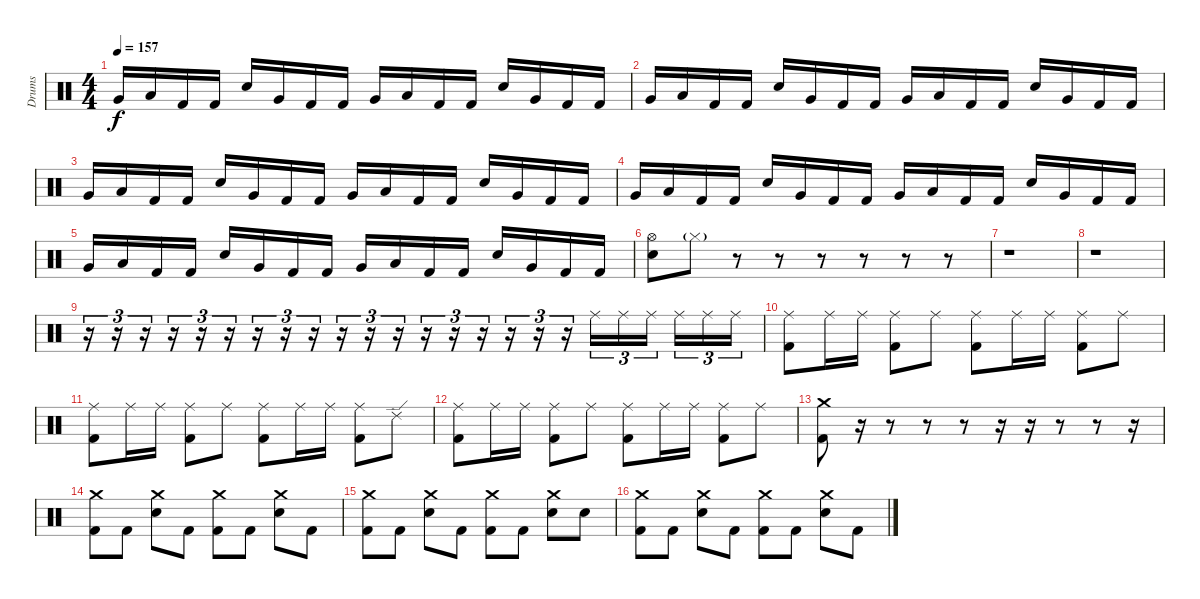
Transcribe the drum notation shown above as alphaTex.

\track ("Drums" "Drums") {instrument percussion}
\staff {score}
\articulation defaults
\ts (4 4)
\tempo 157
\clef neutral
\ks c "Very Low Tom (hit)".16{dy f} "Low Floor Tom (hit)".16 "Kick (hit) 2".16 "Kick (hit) 2".16 "Electric Snare (hit)".16 "Very Low Tom (hit)".16 "Kick (hit) 2".16 "Kick (hit) 2".16 "Very Low Tom (hit)".16 "Low Floor Tom (hit)".16 "Kick (hit) 2".16 "Kick (hit) 2".16 "Electric Snare (hit)".16 "Very Low Tom (hit)".16 "Kick (hit) 2".16 "Kick (hit) 2".16
|
"Very Low Tom (hit)".16 "Low Floor Tom (hit)".16 "Kick (hit) 2".16 "Kick (hit) 2".16 "Electric Snare (hit)".16 "Very Low Tom (hit)".16 "Kick (hit) 2".16 "Kick (hit) 2".16 "Very Low Tom (hit)".16 "Low Floor Tom (hit)".16 "Kick (hit) 2".16 "Kick (hit) 2".16 "Electric Snare (hit)".16 "Very Low Tom (hit)".16 "Kick (hit) 2".16 "Kick (hit) 2".16 |
"Very Low Tom (hit)".16 "Low Floor Tom (hit)".16 "Kick (hit) 2".16 "Kick (hit) 2".16 "Electric Snare (hit)".16 "Very Low Tom (hit)".16 "Kick (hit) 2".16 "Kick (hit) 2".16 "Very Low Tom (hit)".16 "Low Floor Tom (hit)".16 "Kick (hit) 2".16 "Kick (hit) 2".16 "Electric Snare (hit)".16 "Very Low Tom (hit)".16 "Kick (hit) 2".16 "Kick (hit) 2".16 |
"Very Low Tom (hit)".16 "Low Floor Tom (hit)".16 "Kick (hit) 2".16 "Kick (hit) 2".16 "Electric Snare (hit)".16 "Very Low Tom (hit)".16 "Kick (hit) 2".16 "Kick (hit) 2".16 "Very Low Tom (hit)".16 "Low Floor Tom (hit)".16 "Kick (hit) 2".16 "Kick (hit) 2".16 "Electric Snare (hit)".16 "Very Low Tom (hit)".16 "Kick (hit) 2".16 "Kick (hit) 2".16 |
"Very Low Tom (hit)".16 "Low Floor Tom (hit)".16 "Kick (hit) 2".16 "Kick (hit) 2".16 "Electric Snare (hit)".16 "Very Low Tom (hit)".16 "Kick (hit) 2".16 "Kick (hit) 2".16 "Very Low Tom (hit)".16 "Low Floor Tom (hit)".16 "Kick (hit) 2".16 "Kick (hit) 2".16 "Electric Snare (hit)".16 "Very Low Tom (hit)".16 "Kick (hit) 2".16 "Kick (hit) 2".16 |
("Hi-Hat (open)" "Electric Snare (hit)").8 "Hi-Hat (closed)"{g}.8 r.8 r.8 r.8 r.8 r.8 r.8 |
r.1 |
r.1 |
r.16{tu (3 2)} r.16{tu (3 2)} r.16{tu (3 2)} r.16{tu (3 2)} r.16{tu (3 2)} r.16{tu (3 2)} r.16{tu (3 2)} r.16{tu (3 2)} r.16{tu (3 2)} r.16{tu (3 2)} r.16{tu (3 2)} r.16{tu (3 2)} r.16{tu (3 2)} r.16{tu (3 2)} r.16{tu (3 2)} r.16{tu (3 2)} r.16{tu (3 2)} r.16{tu (3 2)} "Ride (middle)".16{tu (3 2)} "Ride (middle)".16{tu (3 2)} "Ride (middle)".16{tu (3 2)} "Ride (middle)".16{tu (3 2)} "Ride (middle)".16{tu (3 2)} "Ride (middle)".16{tu (3 2)} |
("Ride (middle)" "Kick (hit) 2").8 "Ride (middle)".16 "Ride (middle)".16 ("Ride (middle)" "Kick (hit) 2").8 "Ride (middle)".8 ("Ride (middle)" "Kick (hit) 2").8 "Ride (middle)".16 "Ride (middle)".16 ("Ride (middle)" "Kick (hit) 2").8 "Ride (middle)".8 |
("Ride (middle)" "Kick (hit) 2").8 "Ride (middle)".16 "Ride (middle)".16 ("Ride (middle)" "Kick (hit) 2").8 "Ride (middle)".8 ("Ride (middle)" "Kick (hit) 2").8 "Ride (middle)".16 "Ride (middle)".16 ("Ride (middle)" "Kick (hit) 2").8 "Ride (edge) 2".8 |
("Ride (middle)" "Kick (hit) 2").8 "Ride (middle)".16 "Ride (middle)".16 ("Ride (middle)" "Kick (hit) 2").8 "Ride (middle)".8 ("Ride (middle)" "Kick (hit) 2").8 "Ride (middle)".16 "Ride (middle)".16 ("Ride (middle)" "Kick (hit) 2").8 "Ride (middle)".8 |
("Crash medium (hit)" "Kick (hit) 2").8 r.16 r.8 r.8 r.8 r.16 r.16 r.8 r.8 r.16 |
("Crash medium (hit)" "Kick (hit) 2").8 "Kick (hit) 2".8 ("Crash medium (hit)" "Electric Snare (hit)").8 "Kick (hit) 2".8 ("Crash medium (hit)" "Kick (hit) 2").8 "Kick (hit) 2".8 ("Crash medium (hit)" "Electric Snare (hit)").8 "Kick (hit) 2".8 |
("Crash medium (hit)" "Kick (hit) 2").8 "Kick (hit) 2".8 ("Crash medium (hit)" "Electric Snare (hit)").8 "Kick (hit) 2".8 ("Crash medium (hit)" "Kick (hit) 2").8 "Kick (hit) 2".8 ("Crash medium (hit)" "Electric Snare (hit)").8 "Electric Snare (hit)".8 |
("Crash medium (hit)" "Kick (hit) 2").8 "Kick (hit) 2".8 ("Crash medium (hit)" "Electric Snare (hit)").8 "Kick (hit) 2".8 ("Crash medium (hit)" "Kick (hit) 2").8 "Kick (hit) 2".8 ("Crash medium (hit)" "Electric Snare (hit)").8 "Kick (hit) 2".8
